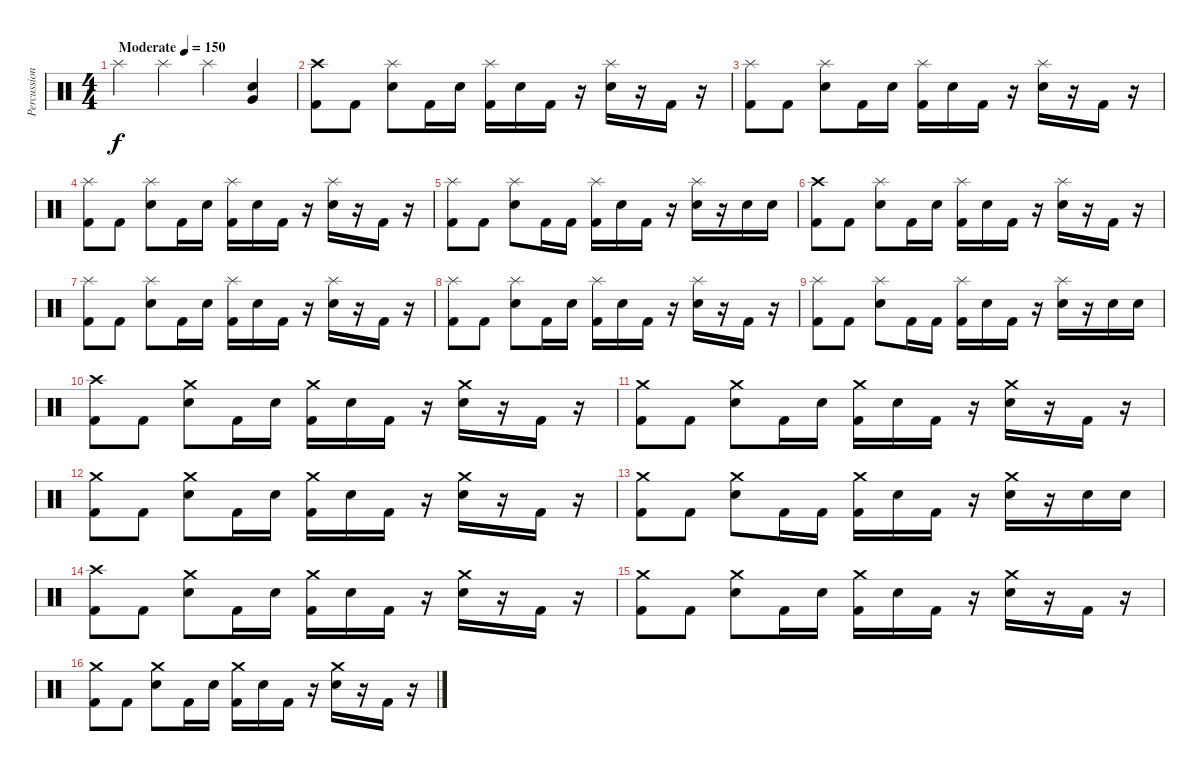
\track ("Percussion" "Percussion") {instrument percussion}
\staff {score}
\articulation defaults
\ts (4 4)
\tempo (150 "Moderate")
\clef neutral
\ks c "Splash (hit)".4{dy f} "Splash (hit)".4 "Splash (hit)".4
("Electric Snare (hit)" "Very Low Tom (hit)").4 |
("Kick (hit) 2" "Crash high (hit)").8 "Kick (hit) 2".8 ("Electric Snare (hit)" "Splash (hit)").8 "Kick (hit) 2".16 "Electric Snare (hit)".16 ("Kick (hit) 2" "Splash (hit)").16 "Electric Snare (hit)".16 "Kick (hit) 2".16 r.16 ("Electric Snare (hit)" "Splash (hit)").16 r.16 "Kick (hit) 2".16 r.16 |
("Kick (hit) 2" "Splash (hit)").8 "Kick (hit) 2".8 ("Electric Snare (hit)" "Splash (hit)").8 "Kick (hit) 2".16 "Electric Snare (hit)".16 ("Kick (hit) 2" "Splash (hit)").16 "Electric Snare (hit)".16 "Kick (hit) 2".16 r.16 ("Electric Snare (hit)" "Splash (hit)").16 r.16 "Kick (hit) 2".16 r.16 |
("Kick (hit) 2" "Splash (hit)").8 "Kick (hit) 2".8 ("Electric Snare (hit)" "Splash (hit)").8 "Kick (hit) 2".16 "Electric Snare (hit)".16 ("Kick (hit) 2" "Splash (hit)").16 "Electric Snare (hit)".16 "Kick (hit) 2".16 r.16 ("Electric Snare (hit)" "Splash (hit)").16 r.16 "Kick (hit) 2".16 r.16 |
("Kick (hit) 2" "Splash (hit)").8 "Kick (hit) 2".8 ("Electric Snare (hit)" "Splash (hit)").8 "Kick (hit) 2".16 "Kick (hit) 2".16 ("Kick (hit) 2" "Splash (hit)").16 "Electric Snare (hit)".16 "Kick (hit) 2".16 r.16 ("Electric Snare (hit)" "Splash (hit)").16 r.16 "Electric Snare (hit)".16 "Electric Snare (hit)".16 |
("Kick (hit) 2" "Crash high (hit)").8 "Kick (hit) 2".8 ("Electric Snare (hit)" "Splash (hit)").8 "Kick (hit) 2".16 "Electric Snare (hit)".16 ("Kick (hit) 2" "Splash (hit)").16 "Electric Snare (hit)".16 "Kick (hit) 2".16 r.16 ("Electric Snare (hit)" "Splash (hit)").16 r.16 "Kick (hit) 2".16 r.16 |
("Kick (hit) 2" "Splash (hit)").8 "Kick (hit) 2".8 ("Electric Snare (hit)" "Splash (hit)").8 "Kick (hit) 2".16 "Electric Snare (hit)".16 ("Kick (hit) 2" "Splash (hit)").16 "Electric Snare (hit)".16 "Kick (hit) 2".16 r.16 ("Electric Snare (hit)" "Splash (hit)").16 r.16 "Kick (hit) 2".16 r.16 |
("Kick (hit) 2" "Splash (hit)").8 "Kick (hit) 2".8 ("Electric Snare (hit)" "Splash (hit)").8 "Kick (hit) 2".16 "Electric Snare (hit)".16 ("Kick (hit) 2" "Splash (hit)").16 "Electric Snare (hit)".16 "Kick (hit) 2".16 r.16 ("Electric Snare (hit)" "Splash (hit)").16 r.16 "Kick (hit) 2".16 r.16 |
("Kick (hit) 2" "Splash (hit)").8 "Kick (hit) 2".8 ("Electric Snare (hit)" "Splash (hit)").8 "Kick (hit) 2".16 "Kick (hit) 2".16 ("Kick (hit) 2" "Splash (hit)").16 "Electric Snare (hit)".16 "Kick (hit) 2".16 r.16 ("Electric Snare (hit)" "Splash (hit)").16 r.16 "Electric Snare (hit)".16 "Electric Snare (hit)".16 |
("Kick (hit) 2" "Crash high (hit)").8 "Kick (hit) 2".8 ("Electric Snare (hit)" "Crash medium (hit)").8 "Kick (hit) 2".16 "Electric Snare (hit)".16 ("Kick (hit) 2" "Crash medium (hit)").16 "Electric Snare (hit)".16 "Kick (hit) 2".16 r.16 ("Electric Snare (hit)" "Crash medium (hit)").16 r.16 "Kick (hit) 2".16 r.16 |
("Kick (hit) 2" "Crash medium (hit)").8 "Kick (hit) 2".8 ("Electric Snare (hit)" "Crash medium (hit)").8 "Kick (hit) 2".16 "Electric Snare (hit)".16 ("Kick (hit) 2" "Crash medium (hit)").16 "Electric Snare (hit)".16 "Kick (hit) 2".16 r.16 ("Electric Snare (hit)" "Crash medium (hit)").16 r.16 "Kick (hit) 2".16 r.16 |
("Kick (hit) 2" "Crash medium (hit)").8 "Kick (hit) 2".8 ("Electric Snare (hit)" "Crash medium (hit)").8 "Kick (hit) 2".16 "Electric Snare (hit)".16 ("Kick (hit) 2" "Crash medium (hit)").16 "Electric Snare (hit)".16 "Kick (hit) 2".16 r.16 ("Electric Snare (hit)" "Crash medium (hit)").16 r.16 "Kick (hit) 2".16 r.16 |
("Kick (hit) 2" "Crash medium (hit)").8 "Kick (hit) 2".8 ("Electric Snare (hit)" "Crash medium (hit)").8 "Kick (hit) 2".16 "Kick (hit) 2".16 ("Kick (hit) 2" "Crash medium (hit)").16 "Electric Snare (hit)".16 "Kick (hit) 2".16 r.16 ("Electric Snare (hit)" "Crash medium (hit)").16 r.16 "Electric Snare (hit)".16 "Electric Snare (hit)".16 |
("Kick (hit) 2" "Crash high (hit)").8 "Kick (hit) 2".8 ("Electric Snare (hit)" "Crash medium (hit)").8 "Kick (hit) 2".16 "Electric Snare (hit)".16 ("Kick (hit) 2" "Crash medium (hit)").16 "Electric Snare (hit)".16 "Kick (hit) 2".16 r.16 ("Electric Snare (hit)" "Crash medium (hit)").16 r.16 "Kick (hit) 2".16 r.16 |
("Kick (hit) 2" "Crash medium (hit)").8 "Kick (hit) 2".8 ("Electric Snare (hit)" "Crash medium (hit)").8 "Kick (hit) 2".16 "Electric Snare (hit)".16 ("Kick (hit) 2" "Crash medium (hit)").16 "Electric Snare (hit)".16 "Kick (hit) 2".16 r.16 ("Electric Snare (hit)" "Crash medium (hit)").16 r.16 "Kick (hit) 2".16 r.16 |
("Kick (hit) 2" "Crash medium (hit)").8 "Kick (hit) 2".8 ("Electric Snare (hit)" "Crash medium (hit)").8 "Kick (hit) 2".16 "Electric Snare (hit)".16 ("Kick (hit) 2" "Crash medium (hit)").16 "Electric Snare (hit)".16 "Kick (hit) 2".16 r.16 ("Electric Snare (hit)" "Crash medium (hit)").16 r.16 "Kick (hit) 2".16 r.16
